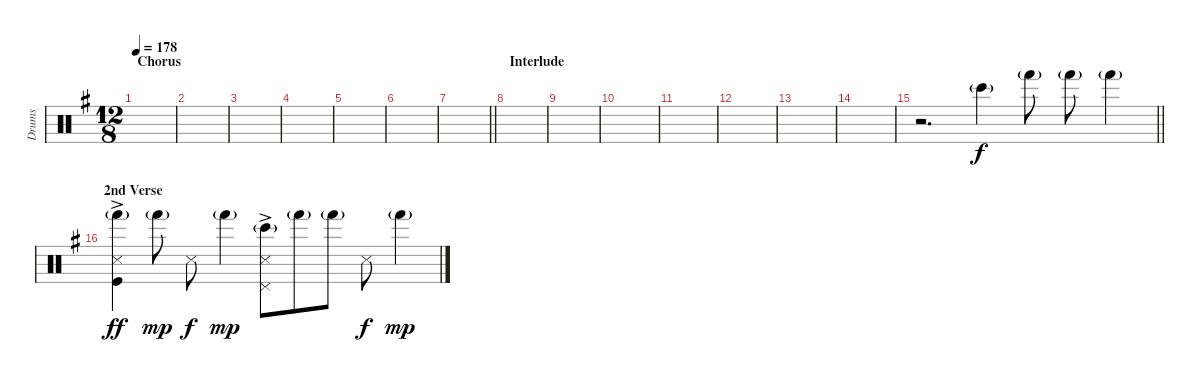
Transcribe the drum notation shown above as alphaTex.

\track ("Drums" "Drums") {instrument percussion}
\staff {score}
\articulation defaults
\ts (12 8)
\section ("" "Chorus")
\tempo 178
\clef neutral
\ks g
|
|
|
|
|
|
\barLineRight lightlight
|
\section ("" "Interlude")
|
|
|
|
|
|
|
\barLineRight lightlight
r.2{d} "Bongo High (hit)"{g}.4 "Hand (hit)"{g}.8 "Hand (hit)"{g}.8 "Hand (hit)"{g}.4 |
\section ("" "2nd Verse")
("Snare (side stick) 3" "Hand (hit)"{g} "Kick (hit)"{ac}).4{dy ff} "Hand (hit)"{g}.8{dy mp} "Snare (side stick) 3".8{dy f} "Hand (hit)"{g}.4{dy mp} ("Pedal Hi-Hat (hit)"{ac} "Snare (side stick) 3" "Bongo High (hit)"{g}).8 "Hand (hit)"{g}.8 "Hand (hit)"{g}.8 "Snare (side stick) 3".8{dy f} "Hand (hit)"{g}.4{dy mp}
